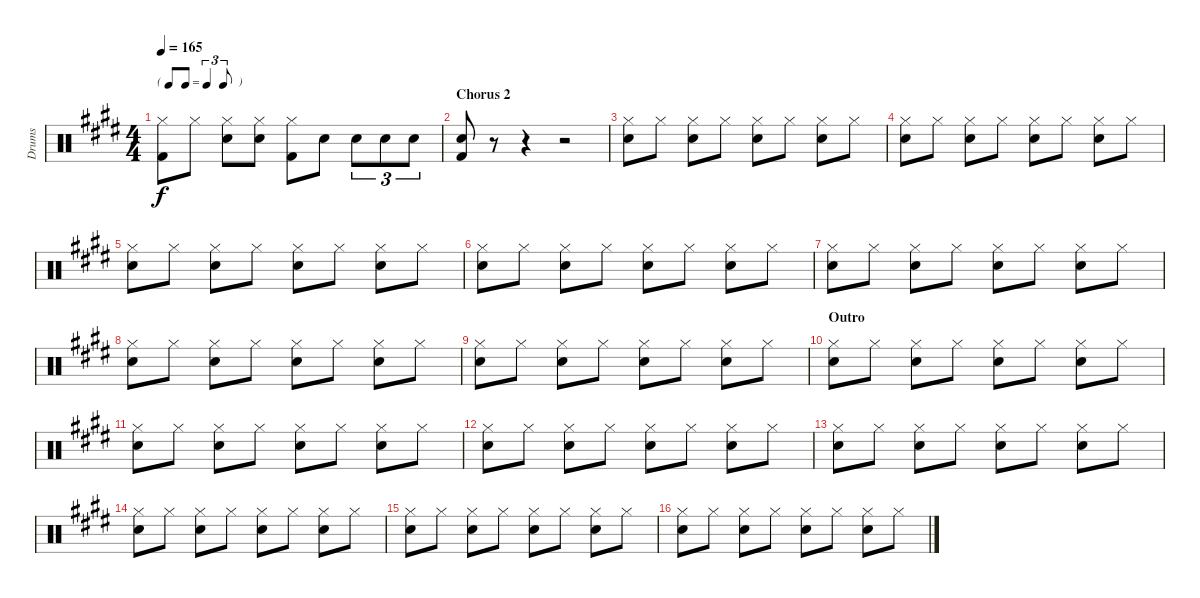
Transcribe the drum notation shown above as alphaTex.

\track ("Drums" "Drums") {instrument percussion}
\staff {score}
\articulation defaults
\ts (4 4)
\tf triplet8th
\tempo 165
\clef neutral
\ks e
("Hi-Hat (closed)" "Kick (hit) 2").8{dy f} "Hi-Hat (closed)".8 ("Hi-Hat (closed)" "Snare (hit) 2").8 ("Hi-Hat (closed)" "Snare (hit) 2").8 ("Hi-Hat (closed)" "Kick (hit) 2").8 "Snare (hit) 2".8 "Snare (hit) 2".8{tu (3 2)} "Snare (hit) 2".8{tu (3 2)} "Snare (hit) 2".8{tu (3 2)} |
\section ("" "Chorus 2")
("Snare (hit) 2" "Kick (hit) 2").8 r.8 r.4 r.2 |
("Hi-Hat (closed)" "Snare (hit) 2").8 "Hi-Hat (closed)".8 ("Hi-Hat (closed)" "Snare (hit) 2").8 "Hi-Hat (closed)".8 ("Hi-Hat (closed)" "Snare (hit) 2").8 "Hi-Hat (closed)".8 ("Hi-Hat (closed)" "Snare (hit) 2").8 "Hi-Hat (closed)".8 |
("Hi-Hat (closed)" "Snare (hit) 2").8 "Hi-Hat (closed)".8 ("Hi-Hat (closed)" "Snare (hit) 2").8 "Hi-Hat (closed)".8 ("Hi-Hat (closed)" "Snare (hit) 2").8 "Hi-Hat (closed)".8 ("Hi-Hat (closed)" "Snare (hit) 2").8 "Hi-Hat (closed)".8 |
("Hi-Hat (closed)" "Snare (hit) 2").8 "Hi-Hat (closed)".8 ("Hi-Hat (closed)" "Snare (hit) 2").8 "Hi-Hat (closed)".8 ("Hi-Hat (closed)" "Snare (hit) 2").8 "Hi-Hat (closed)".8 ("Hi-Hat (closed)" "Snare (hit) 2").8 "Hi-Hat (closed)".8 |
("Hi-Hat (closed)" "Snare (hit) 2").8 "Hi-Hat (closed)".8 ("Hi-Hat (closed)" "Snare (hit) 2").8 "Hi-Hat (closed)".8 ("Hi-Hat (closed)" "Snare (hit) 2").8 "Hi-Hat (closed)".8 ("Hi-Hat (closed)" "Snare (hit) 2").8 "Hi-Hat (closed)".8 |
("Hi-Hat (closed)" "Snare (hit) 2").8 "Hi-Hat (closed)".8 ("Hi-Hat (closed)" "Snare (hit) 2").8 "Hi-Hat (closed)".8 ("Hi-Hat (closed)" "Snare (hit) 2").8 "Hi-Hat (closed)".8 ("Hi-Hat (closed)" "Snare (hit) 2").8 "Hi-Hat (closed)".8 |
("Hi-Hat (closed)" "Snare (hit) 2").8 "Hi-Hat (closed)".8 ("Hi-Hat (closed)" "Snare (hit) 2").8 "Hi-Hat (closed)".8 ("Hi-Hat (closed)" "Snare (hit) 2").8 "Hi-Hat (closed)".8 ("Hi-Hat (closed)" "Snare (hit) 2").8 "Hi-Hat (closed)".8 |
("Hi-Hat (closed)" "Snare (hit) 2").8 "Hi-Hat (closed)".8 ("Hi-Hat (closed)" "Snare (hit) 2").8 "Hi-Hat (closed)".8 ("Hi-Hat (closed)" "Snare (hit) 2").8 "Hi-Hat (closed)".8 ("Hi-Hat (closed)" "Snare (hit) 2").8 "Hi-Hat (closed)".8 |
\section ("" "Outro")
("Hi-Hat (closed)" "Snare (hit) 2").8 "Hi-Hat (closed)".8 ("Hi-Hat (closed)" "Snare (hit) 2").8 "Hi-Hat (closed)".8 ("Hi-Hat (closed)" "Snare (hit) 2").8 "Hi-Hat (closed)".8 ("Hi-Hat (closed)" "Snare (hit) 2").8 "Hi-Hat (closed)".8 |
("Hi-Hat (closed)" "Snare (hit) 2").8 "Hi-Hat (closed)".8 ("Hi-Hat (closed)" "Snare (hit) 2").8 "Hi-Hat (closed)".8 ("Hi-Hat (closed)" "Snare (hit) 2").8 "Hi-Hat (closed)".8 ("Hi-Hat (closed)" "Snare (hit) 2").8 "Hi-Hat (closed)".8 |
("Hi-Hat (closed)" "Snare (hit) 2").8 "Hi-Hat (closed)".8 ("Hi-Hat (closed)" "Snare (hit) 2").8 "Hi-Hat (closed)".8 ("Hi-Hat (closed)" "Snare (hit) 2").8 "Hi-Hat (closed)".8 ("Hi-Hat (closed)" "Snare (hit) 2").8 "Hi-Hat (closed)".8 |
("Hi-Hat (closed)" "Snare (hit) 2").8 "Hi-Hat (closed)".8 ("Hi-Hat (closed)" "Snare (hit) 2").8 "Hi-Hat (closed)".8 ("Hi-Hat (closed)" "Snare (hit) 2").8 "Hi-Hat (closed)".8 ("Hi-Hat (closed)" "Snare (hit) 2").8 "Hi-Hat (closed)".8 |
("Hi-Hat (closed)" "Snare (hit) 2").8 "Hi-Hat (closed)".8 ("Hi-Hat (closed)" "Snare (hit) 2").8 "Hi-Hat (closed)".8 ("Hi-Hat (closed)" "Snare (hit) 2").8 "Hi-Hat (closed)".8 ("Hi-Hat (closed)" "Snare (hit) 2").8 "Hi-Hat (closed)".8 |
("Hi-Hat (closed)" "Snare (hit) 2").8 "Hi-Hat (closed)".8 ("Hi-Hat (closed)" "Snare (hit) 2").8 "Hi-Hat (closed)".8 ("Hi-Hat (closed)" "Snare (hit) 2").8 "Hi-Hat (closed)".8 ("Hi-Hat (closed)" "Snare (hit) 2").8 "Hi-Hat (closed)".8 |
("Hi-Hat (closed)" "Snare (hit) 2").8 "Hi-Hat (closed)".8 ("Hi-Hat (closed)" "Snare (hit) 2").8 "Hi-Hat (closed)".8 ("Hi-Hat (closed)" "Snare (hit) 2").8 "Hi-Hat (closed)".8 ("Hi-Hat (closed)" "Snare (hit) 2").8 "Hi-Hat (closed)".8
